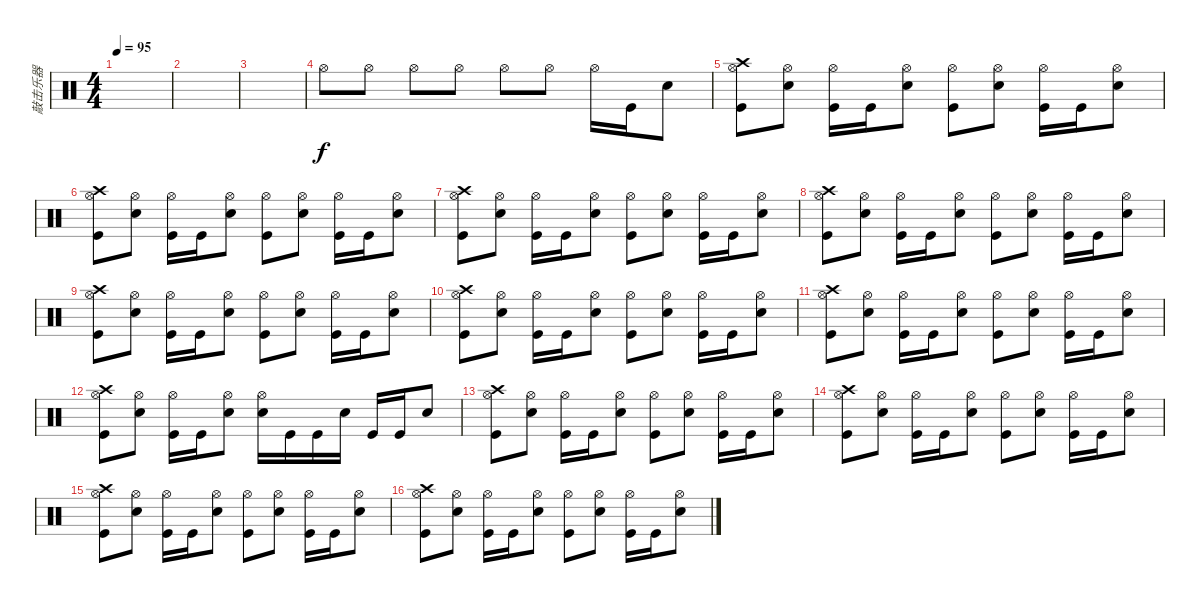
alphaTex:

\track ("敲击乐器" "敲击乐器") {instrument percussion}
\staff {score}
\articulation defaults
\ts (4 4)
\tempo 95
\clef neutral
\ks c
|
|
|
"Hi-Hat (open)".8 "Hi-Hat (open)".8 "Hi-Hat (open)".8 "Hi-Hat (open)".8 "Hi-Hat (open)".8 "Hi-Hat (open)".8 "Hi-Hat (open)".16 "Kick (hit)".16 "Electric Snare (hit)".8 |
("Crash high (hit)" "Hi-Hat (open)" "Kick (hit)").8 ("Hi-Hat (open)" "Electric Snare (hit)").8 ("Hi-Hat (open)" "Kick (hit)").16 "Kick (hit)".16 ("Hi-Hat (open)" "Electric Snare (hit)").8 ("Hi-Hat (open)" "Kick (hit)").8 ("Hi-Hat (open)" "Electric Snare (hit)").8 ("Hi-Hat (open)" "Kick (hit)").16 "Kick (hit)".16 ("Hi-Hat (open)" "Electric Snare (hit)").8 |
("Crash high (hit)" "Hi-Hat (open)" "Kick (hit)").8 ("Hi-Hat (open)" "Electric Snare (hit)").8 ("Hi-Hat (open)" "Kick (hit)").16 "Kick (hit)".16 ("Hi-Hat (open)" "Electric Snare (hit)").8 ("Hi-Hat (open)" "Kick (hit)").8 ("Hi-Hat (open)" "Electric Snare (hit)").8 ("Hi-Hat (open)" "Kick (hit)").16 "Kick (hit)".16 ("Hi-Hat (open)" "Electric Snare (hit)").8 |
("Crash high (hit)" "Hi-Hat (open)" "Kick (hit)").8 ("Hi-Hat (open)" "Electric Snare (hit)").8 ("Hi-Hat (open)" "Kick (hit)").16 "Kick (hit)".16 ("Hi-Hat (open)" "Electric Snare (hit)").8 ("Hi-Hat (open)" "Kick (hit)").8 ("Hi-Hat (open)" "Electric Snare (hit)").8 ("Hi-Hat (open)" "Kick (hit)").16 "Kick (hit)".16 ("Hi-Hat (open)" "Electric Snare (hit)").8 |
("Crash high (hit)" "Hi-Hat (open)" "Kick (hit)").8 ("Hi-Hat (open)" "Electric Snare (hit)").8 ("Hi-Hat (open)" "Kick (hit)").16 "Kick (hit)".16 ("Hi-Hat (open)" "Electric Snare (hit)").8 ("Hi-Hat (open)" "Kick (hit)").8 ("Hi-Hat (open)" "Electric Snare (hit)").8 ("Hi-Hat (open)" "Kick (hit)").16 "Kick (hit)".16 ("Hi-Hat (open)" "Electric Snare (hit)").8 |
("Crash high (hit)" "Hi-Hat (open)" "Kick (hit)").8 ("Hi-Hat (open)" "Electric Snare (hit)").8 ("Hi-Hat (open)" "Kick (hit)").16 "Kick (hit)".16 ("Hi-Hat (open)" "Electric Snare (hit)").8 ("Hi-Hat (open)" "Kick (hit)").8 ("Hi-Hat (open)" "Electric Snare (hit)").8 ("Hi-Hat (open)" "Kick (hit)").16 "Kick (hit)".16 ("Hi-Hat (open)" "Electric Snare (hit)").8 |
("Crash high (hit)" "Hi-Hat (open)" "Kick (hit)").8 ("Hi-Hat (open)" "Electric Snare (hit)").8 ("Hi-Hat (open)" "Kick (hit)").16 "Kick (hit)".16 ("Hi-Hat (open)" "Electric Snare (hit)").8 ("Hi-Hat (open)" "Kick (hit)").8 ("Hi-Hat (open)" "Electric Snare (hit)").8 ("Hi-Hat (open)" "Kick (hit)").16 "Kick (hit)".16 ("Hi-Hat (open)" "Electric Snare (hit)").8 |
("Crash high (hit)" "Hi-Hat (open)" "Kick (hit)").8 ("Hi-Hat (open)" "Electric Snare (hit)").8 ("Hi-Hat (open)" "Kick (hit)").16 "Kick (hit)".16 ("Hi-Hat (open)" "Electric Snare (hit)").8 ("Hi-Hat (open)" "Kick (hit)").8 ("Hi-Hat (open)" "Electric Snare (hit)").8 ("Hi-Hat (open)" "Kick (hit)").16 "Kick (hit)".16 ("Hi-Hat (open)" "Electric Snare (hit)").8 |
("Crash high (hit)" "Hi-Hat (open)" "Kick (hit)").8 ("Hi-Hat (open)" "Electric Snare (hit)").8 ("Hi-Hat (open)" "Kick (hit)").16 "Kick (hit)".16 ("Hi-Hat (open)" "Electric Snare (hit)").8 ("Hi-Hat (open)" "Electric Snare (hit)").16 "Kick (hit)".16 "Kick (hit)".16 "Electric Snare (hit)".16 "Kick (hit)".16 "Kick (hit)".16 "Electric Snare (hit)".8 |
("Crash high (hit)" "Hi-Hat (open)" "Kick (hit)").8 ("Hi-Hat (open)" "Electric Snare (hit)").8 ("Hi-Hat (open)" "Kick (hit)").16 "Kick (hit)".16 ("Hi-Hat (open)" "Electric Snare (hit)").8 ("Hi-Hat (open)" "Kick (hit)").8 ("Hi-Hat (open)" "Electric Snare (hit)").8 ("Hi-Hat (open)" "Kick (hit)").16 "Kick (hit)".16 ("Hi-Hat (open)" "Electric Snare (hit)").8 |
("Crash high (hit)" "Hi-Hat (open)" "Kick (hit)").8 ("Hi-Hat (open)" "Electric Snare (hit)").8 ("Hi-Hat (open)" "Kick (hit)").16 "Kick (hit)".16 ("Hi-Hat (open)" "Electric Snare (hit)").8 ("Hi-Hat (open)" "Kick (hit)").8 ("Hi-Hat (open)" "Electric Snare (hit)").8 ("Hi-Hat (open)" "Kick (hit)").16 "Kick (hit)".16 ("Hi-Hat (open)" "Electric Snare (hit)").8 |
("Crash high (hit)" "Hi-Hat (open)" "Kick (hit)").8 ("Hi-Hat (open)" "Electric Snare (hit)").8 ("Hi-Hat (open)" "Kick (hit)").16 "Kick (hit)".16 ("Hi-Hat (open)" "Electric Snare (hit)").8 ("Hi-Hat (open)" "Kick (hit)").8 ("Hi-Hat (open)" "Electric Snare (hit)").8 ("Hi-Hat (open)" "Kick (hit)").16 "Kick (hit)".16 ("Hi-Hat (open)" "Electric Snare (hit)").8 |
("Crash high (hit)" "Hi-Hat (open)" "Kick (hit)").8 ("Hi-Hat (open)" "Electric Snare (hit)").8 ("Hi-Hat (open)" "Kick (hit)").16 "Kick (hit)".16 ("Hi-Hat (open)" "Electric Snare (hit)").8 ("Hi-Hat (open)" "Kick (hit)").8 ("Hi-Hat (open)" "Electric Snare (hit)").8 ("Hi-Hat (open)" "Kick (hit)").16 "Kick (hit)".16 ("Hi-Hat (open)" "Electric Snare (hit)").8
